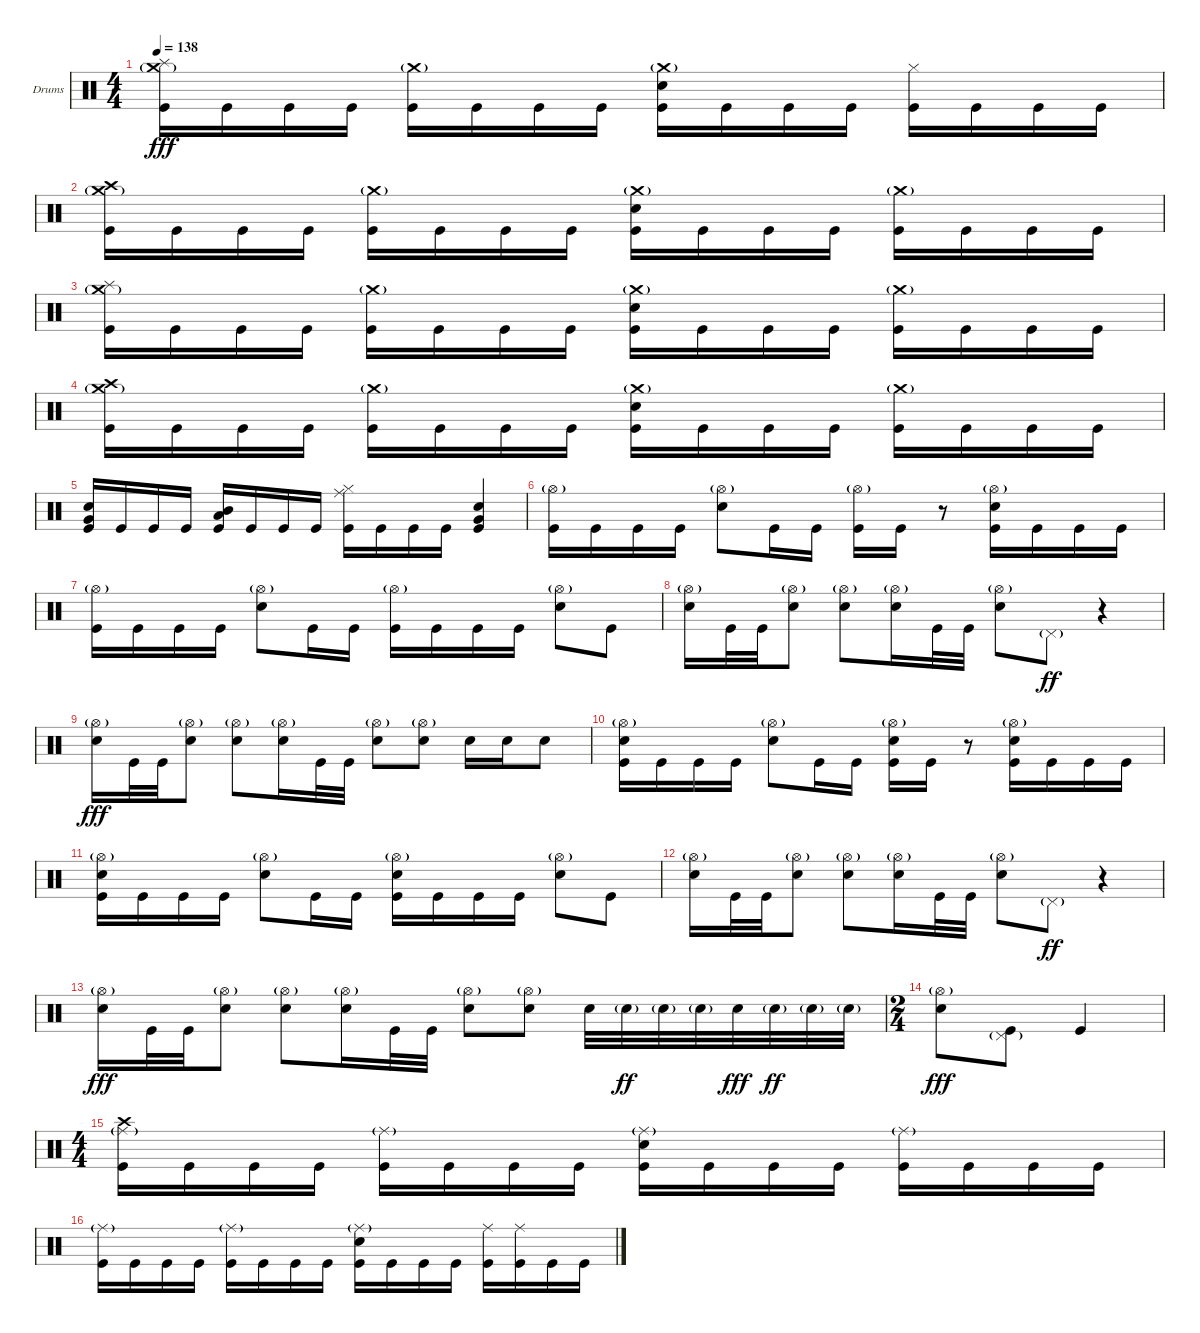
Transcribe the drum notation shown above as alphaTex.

\bracketExtendMode groupsimilarinstruments
\firstSystemTrackNameOrientation horizontal
\otherSystemsTrackNameOrientation horizontal
\track ("Drumkit" "Drums") {instrument percussion}
\staff {score}
\articulation defaults
\ts (4 4)
\tempo 138
\clef neutral
\ks c
("Crash medium (hit)"{g} "Splash (hit)" "Kick (hit)").16{dy fff} "Kick (hit)".16 "Kick (hit)".16 "Kick (hit)".16 ("Crash medium (hit)"{g} "Kick (hit)").16 "Kick (hit)".16 "Kick (hit)".16 "Kick (hit)".16 ("Crash medium (hit)"{g} "Snare (hit) 2" "Kick (hit)").16 "Kick (hit)".16 "Kick (hit)".16 "Kick (hit)".16 ("Hi-Hat (closed)" "Kick (hit)").16 "Kick (hit)".16 "Kick (hit)".16 "Kick (hit)".16 |
("Crash medium (hit)"{g} "Crash high (hit)" "Kick (hit)").16 "Kick (hit)".16 "Kick (hit)".16 "Kick (hit)".16 ("Crash medium (hit)"{g} "Kick (hit)").16 "Kick (hit)".16 "Kick (hit)".16 "Kick (hit)".16 ("Crash medium (hit)"{g} "Snare (hit) 2" "Kick (hit)").16 "Kick (hit)".16 "Kick (hit)".16 "Kick (hit)".16 ("Crash medium (hit)"{g} "Kick (hit)").16 "Kick (hit)".16 "Kick (hit)".16 "Kick (hit)".16 |
("Crash medium (hit)"{g} "Splash (hit)" "Kick (hit)").16 "Kick (hit)".16 "Kick (hit)".16 "Kick (hit)".16 ("Crash medium (hit)"{g} "Kick (hit)").16 "Kick (hit)".16 "Kick (hit)".16 "Kick (hit)".16 ("Crash medium (hit)"{g} "Snare (hit) 2" "Kick (hit)").16 "Kick (hit)".16 "Kick (hit)".16 "Kick (hit)".16 ("Crash medium (hit)"{g} "Kick (hit)").16 "Kick (hit)".16 "Kick (hit)".16 "Kick (hit)".16 |
("Crash medium (hit)"{g} "Crash high (hit)" "Kick (hit)").16 "Kick (hit)".16 "Kick (hit)".16 "Kick (hit)".16 ("Crash medium (hit)"{g} "Kick (hit)").16 "Kick (hit)".16 "Kick (hit)".16 "Kick (hit)".16 ("Crash medium (hit)"{g} "Snare (hit) 2" "Kick (hit)").16 "Kick (hit)".16 "Kick (hit)".16 "Kick (hit)".16 ("Crash medium (hit)"{g} "Kick (hit)").16 "Kick (hit)".16 "Kick (hit)".16 "Kick (hit)".16 |
("Snare (hit) 2" "Very Low Tom (hit)" "Kick (hit)").16 "Kick (hit)".16 "Kick (hit)".16 "Kick (hit)".16 ("Mid Tom (hit)" "Low Tom (hit)" "Kick (hit)").16 "Kick (hit)".16 "Kick (hit)".16 "Kick (hit)".16 ("Hi-Hat (closed)" "Ride (middle)" "Kick (hit)").16 "Kick (hit)".16 "Kick (hit)".16 "Kick (hit)".16 ("Snare (hit) 2" "Very Low Tom (hit)" "Kick (hit)").4 |
("Hi-Hat (open)"{g} "Kick (hit)").16 "Kick (hit)".16 "Kick (hit)".16 "Kick (hit)".16 ("Hi-Hat (open)"{g} "Snare (hit) 2").8 "Kick (hit)".16 "Kick (hit)".16 ("Hi-Hat (open)"{g} "Kick (hit)").16 "Kick (hit)".16 r.8 ("Hi-Hat (open)"{g} "Snare (hit) 2" "Kick (hit)").16 "Kick (hit)".16 "Kick (hit)".16 "Kick (hit)".16 |
("Hi-Hat (open)"{g} "Kick (hit)").16 "Kick (hit)".16 "Kick (hit)".16 "Kick (hit)".16 ("Hi-Hat (open)"{g} "Snare (hit) 2").8 "Kick (hit)".16 "Kick (hit)".16 ("Hi-Hat (open)"{g} "Kick (hit)").16 "Kick (hit)".16 "Kick (hit)".16 "Kick (hit)".16 ("Hi-Hat (open)"{g} "Snare (hit) 2").8 "Kick (hit)".8 |
("Hi-Hat (open)"{g} "Snare (hit) 2").16 "Kick (hit)".32 "Kick (hit)".32 ("Hi-Hat (open)"{g} "Snare (hit) 2").8 ("Hi-Hat (open)"{g} "Snare (hit) 2").8 ("Hi-Hat (open)"{g} "Snare (hit) 2").16 "Kick (hit)".32 "Kick (hit)".32 ("Hi-Hat (open)"{g} "Snare (hit) 2").8 "Pedal Hi-Hat (hit)"{g}.8{dy ff} r.4 |
("Hi-Hat (open)"{g} "Snare (hit) 2").16{dy fff} "Kick (hit)".32 "Kick (hit)".32 ("Hi-Hat (open)"{g} "Snare (hit) 2").8 ("Hi-Hat (open)"{g} "Snare (hit) 2").8 ("Hi-Hat (open)"{g} "Snare (hit) 2").16 "Kick (hit)".32 "Kick (hit)".32 ("Hi-Hat (open)"{g} "Snare (hit) 2").8 ("Hi-Hat (open)"{g} "Snare (hit) 2").8 "Snare (hit) 2".16 "Snare (hit) 2".16 "Snare (hit) 2".8 |
("Hi-Hat (open)"{g} "Snare (hit) 2" "Kick (hit)").16 "Kick (hit)".16 "Kick (hit)".16 "Kick (hit)".16 ("Hi-Hat (open)"{g} "Snare (hit) 2").8 "Kick (hit)".16 "Kick (hit)".16 ("Hi-Hat (open)"{g} "Snare (hit) 2" "Kick (hit)").16 "Kick (hit)".16 r.8 ("Hi-Hat (open)"{g} "Snare (hit) 2" "Kick (hit)").16 "Kick (hit)".16 "Kick (hit)".16 "Kick (hit)".16 |
("Hi-Hat (open)"{g} "Snare (hit) 2" "Kick (hit)").16 "Kick (hit)".16 "Kick (hit)".16 "Kick (hit)".16 ("Hi-Hat (open)"{g} "Snare (hit) 2").8 "Kick (hit)".16 "Kick (hit)".16 ("Hi-Hat (open)"{g} "Snare (hit) 2" "Kick (hit)").16 "Kick (hit)".16 "Kick (hit)".16 "Kick (hit)".16 ("Hi-Hat (open)"{g} "Snare (hit) 2").8 "Kick (hit)".8 |
("Hi-Hat (open)"{g} "Snare (hit) 2").16 "Kick (hit)".32 "Kick (hit)".32 ("Hi-Hat (open)"{g} "Snare (hit) 2").8 ("Hi-Hat (open)"{g} "Snare (hit) 2").8 ("Hi-Hat (open)"{g} "Snare (hit) 2").16 "Kick (hit)".32 "Kick (hit)".32 ("Hi-Hat (open)"{g} "Snare (hit) 2").8 "Pedal Hi-Hat (hit)"{g}.8{dy ff} r.4 |
("Hi-Hat (open)"{g} "Snare (hit) 2").16{dy fff} "Kick (hit)".32 "Kick (hit)".32 ("Hi-Hat (open)"{g} "Snare (hit) 2").8 ("Hi-Hat (open)"{g} "Snare (hit) 2").8 ("Hi-Hat (open)"{g} "Snare (hit) 2").16 "Kick (hit)".32 "Kick (hit)".32 ("Hi-Hat (open)"{g} "Snare (hit) 2").8 ("Hi-Hat (open)"{g} "Snare (hit) 2").8 "Snare (hit) 2".32 "Snare (hit) 2"{g}.32{dy ff} "Snare (hit) 2"{g}.32 "Snare (hit) 2"{g}.32 "Snare (hit) 2".32{dy fff} "Snare (hit) 2"{g}.32{dy ff} "Snare (hit) 2"{g}.32 "Snare (hit) 2"{g}.32 |
\ts (2 4)
\beaming (8 2 2)
("Hi-Hat (open)"{g} "Snare (hit) 2").8{dy fff} ("Pedal Hi-Hat (hit)"{g} "Kick (hit)").8 "Kick (hit)".4 |
\ts (4 4)
\beaming (8 2 2 2 2)
("Crash high (hit)" "Ride (middle)"{g} "Kick (hit)").16 "Kick (hit)".16 "Kick (hit)".16 "Kick (hit)".16 ("Ride (middle)"{g} "Kick (hit)").16 "Kick (hit)".16 "Kick (hit)".16 "Kick (hit)".16 ("Ride (middle)"{g} "Snare (hit) 2" "Kick (hit)").16 "Kick (hit)".16 "Kick (hit)".16 "Kick (hit)".16 ("Ride (middle)"{g} "Kick (hit)").16 "Kick (hit)".16 "Kick (hit)".16 "Kick (hit)".16 |
("Ride (middle)"{g} "Kick (hit)").16 "Kick (hit)".16 "Kick (hit)".16 "Kick (hit)".16 ("Ride (middle)"{g} "Kick (hit)").16 "Kick (hit)".16 "Kick (hit)".16 "Kick (hit)".16 ("Ride (middle)"{g} "Snare (hit) 2" "Kick (hit)").16 "Kick (hit)".16 "Kick (hit)".16 "Kick (hit)".16 ("Ride (middle)" "Kick (hit)").16 ("Ride (middle)" "Kick (hit)").16 "Kick (hit)".16 "Kick (hit)".16
